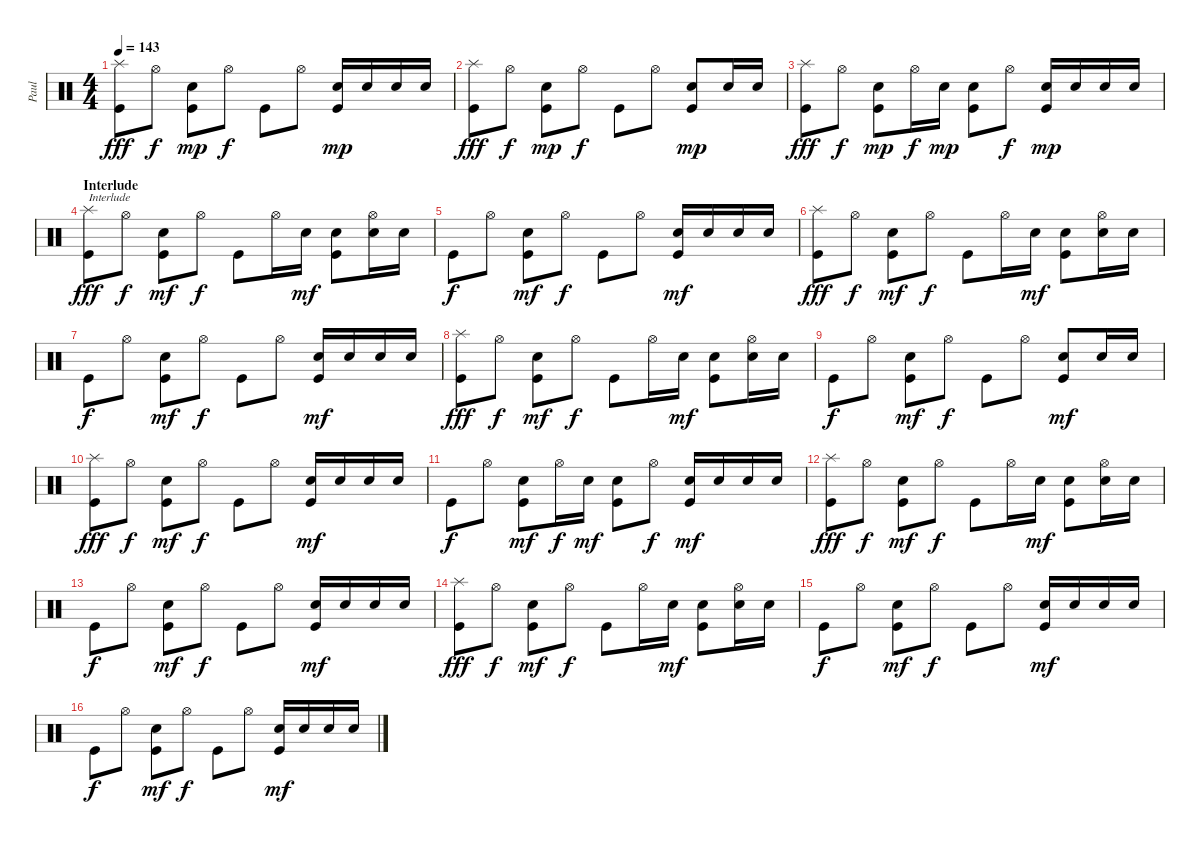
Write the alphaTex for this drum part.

\track ("Paul" "Paul") {instrument percussion}
\staff {score}
\articulation defaults
\ts (4 4)
\tempo 143
\clef neutral
\ks c
("Kick (hit)" "Splash (hit)").8{dy fff} "Hi-Hat (open)".8{dy f} ("Kick (hit)" "Electric Snare (hit)").8{dy mp} "Hi-Hat (open)".8{dy f} "Kick (hit)".8 "Hi-Hat (open)".8 ("Kick (hit)" "Electric Snare (hit)").16{dy mp} "Electric Snare (hit)".16 "Electric Snare (hit)".16 "Electric Snare (hit)".16 |
("Kick (hit)" "Splash (hit)").8{dy fff} "Hi-Hat (open)".8{dy f} ("Kick (hit)" "Electric Snare (hit)").8{dy mp} "Hi-Hat (open)".8{dy f} "Kick (hit)".8 "Hi-Hat (open)".8 ("Kick (hit)" "Electric Snare (hit)").8{dy mp} "Electric Snare (hit)".16 "Electric Snare (hit)".16 |
("Splash (hit)" "Kick (hit)").8{dy fff} "Hi-Hat (open)".8{dy f} ("Kick (hit)" "Electric Snare (hit)").8{dy mp} "Hi-Hat (open)".16{dy f} "Electric Snare (hit)".16{dy mp} ("Kick (hit)" "Electric Snare (hit)").8 "Hi-Hat (open)".8{dy f} ("Kick (hit)" "Electric Snare (hit)").16{dy mp} "Electric Snare (hit)".16 "Electric Snare (hit)".16 "Electric Snare (hit)".16 |
\section ("" "Interlude")
("Kick (hit)" "Splash (hit)").8{txt "Interlude" dy fff} "Hi-Hat (open)".8{dy f} ("Kick (hit)" "Electric Snare (hit)").8{dy mf} "Hi-Hat (open)".8{dy f} "Kick (hit)".8 "Hi-Hat (open)".16 "Electric Snare (hit)".16{dy mf} ("Kick (hit)" "Electric Snare (hit)").8 ("Hi-Hat (open)" "Electric Snare (hit)").16 "Electric Snare (hit)".16 |
"Kick (hit)".8{dy f} "Hi-Hat (open)".8 ("Kick (hit)" "Electric Snare (hit)").8{dy mf} "Hi-Hat (open)".8{dy f} "Kick (hit)".8 "Hi-Hat (open)".8 ("Kick (hit)" "Electric Snare (hit)").16{dy mf} "Electric Snare (hit)".16 "Electric Snare (hit)".16 "Electric Snare (hit)".16 |
("Kick (hit)" "Splash (hit)").8{dy fff} "Hi-Hat (open)".8{dy f} ("Kick (hit)" "Electric Snare (hit)").8{dy mf} "Hi-Hat (open)".8{dy f} "Kick (hit)".8 "Hi-Hat (open)".16 "Electric Snare (hit)".16{dy mf} ("Kick (hit)" "Electric Snare (hit)").8 ("Hi-Hat (open)" "Electric Snare (hit)").16 "Electric Snare (hit)".16 |
"Kick (hit)".8{dy f} "Hi-Hat (open)".8 ("Kick (hit)" "Electric Snare (hit)").8{dy mf} "Hi-Hat (open)".8{dy f} "Kick (hit)".8 "Hi-Hat (open)".8 ("Kick (hit)" "Electric Snare (hit)").16{dy mf} "Electric Snare (hit)".16 "Electric Snare (hit)".16 "Electric Snare (hit)".16 |
("Kick (hit)" "Splash (hit)").8{dy fff} "Hi-Hat (open)".8{dy f} ("Kick (hit)" "Electric Snare (hit)").8{dy mf} "Hi-Hat (open)".8{dy f} "Kick (hit)".8 "Hi-Hat (open)".16 "Electric Snare (hit)".16{dy mf} ("Kick (hit)" "Electric Snare (hit)").8 ("Hi-Hat (open)" "Electric Snare (hit)").16 "Electric Snare (hit)".16 |
"Kick (hit)".8{dy f} "Hi-Hat (open)".8 ("Kick (hit)" "Electric Snare (hit)").8{dy mf} "Hi-Hat (open)".8{dy f} "Kick (hit)".8 "Hi-Hat (open)".8 ("Kick (hit)" "Electric Snare (hit)").8{dy mf} "Electric Snare (hit)".16 "Electric Snare (hit)".16 |
("Kick (hit)" "Splash (hit)").8{dy fff} "Hi-Hat (open)".8{dy f} ("Kick (hit)" "Electric Snare (hit)").8{dy mf} "Hi-Hat (open)".8{dy f} "Kick (hit)".8 "Hi-Hat (open)".8 ("Kick (hit)" "Electric Snare (hit)").16{dy mf} "Electric Snare (hit)".16 "Electric Snare (hit)".16 "Electric Snare (hit)".16 |
"Kick (hit)".8{dy f} "Hi-Hat (open)".8 ("Kick (hit)" "Electric Snare (hit)").8{dy mf} "Hi-Hat (open)".16{dy f} "Electric Snare (hit)".16{dy mf} ("Kick (hit)" "Electric Snare (hit)").8 "Hi-Hat (open)".8{dy f} ("Kick (hit)" "Electric Snare (hit)").16{dy mf} "Electric Snare (hit)".16 "Electric Snare (hit)".16 "Electric Snare (hit)".16 |
("Kick (hit)" "Splash (hit)").8{dy fff} "Hi-Hat (open)".8{dy f} ("Kick (hit)" "Electric Snare (hit)").8{dy mf} "Hi-Hat (open)".8{dy f} "Kick (hit)".8 "Hi-Hat (open)".16 "Electric Snare (hit)".16{dy mf} ("Kick (hit)" "Electric Snare (hit)").8 ("Hi-Hat (open)" "Electric Snare (hit)").16 "Electric Snare (hit)".16 |
"Kick (hit)".8{dy f} "Hi-Hat (open)".8 ("Kick (hit)" "Electric Snare (hit)").8{dy mf} "Hi-Hat (open)".8{dy f} "Kick (hit)".8 "Hi-Hat (open)".8 ("Kick (hit)" "Electric Snare (hit)").16{dy mf} "Electric Snare (hit)".16 "Electric Snare (hit)".16 "Electric Snare (hit)".16 |
("Kick (hit)" "Splash (hit)").8{dy fff} "Hi-Hat (open)".8{dy f} ("Kick (hit)" "Electric Snare (hit)").8{dy mf} "Hi-Hat (open)".8{dy f} "Kick (hit)".8 "Hi-Hat (open)".16 "Electric Snare (hit)".16{dy mf} ("Kick (hit)" "Electric Snare (hit)").8 ("Hi-Hat (open)" "Electric Snare (hit)").16 "Electric Snare (hit)".16 |
"Kick (hit)".8{dy f} "Hi-Hat (open)".8 ("Kick (hit)" "Electric Snare (hit)").8{dy mf} "Hi-Hat (open)".8{dy f} "Kick (hit)".8 "Hi-Hat (open)".8 ("Kick (hit)" "Electric Snare (hit)").16{dy mf} "Electric Snare (hit)".16 "Electric Snare (hit)".16 "Electric Snare (hit)".16 |
"Kick (hit)".8{dy f} "Hi-Hat (open)".8 ("Kick (hit)" "Electric Snare (hit)").8{dy mf} "Hi-Hat (open)".8{dy f} "Kick (hit)".8 "Hi-Hat (open)".8 ("Kick (hit)" "Electric Snare (hit)").16{dy mf} "Electric Snare (hit)".16 "Electric Snare (hit)".16 "Electric Snare (hit)".16
